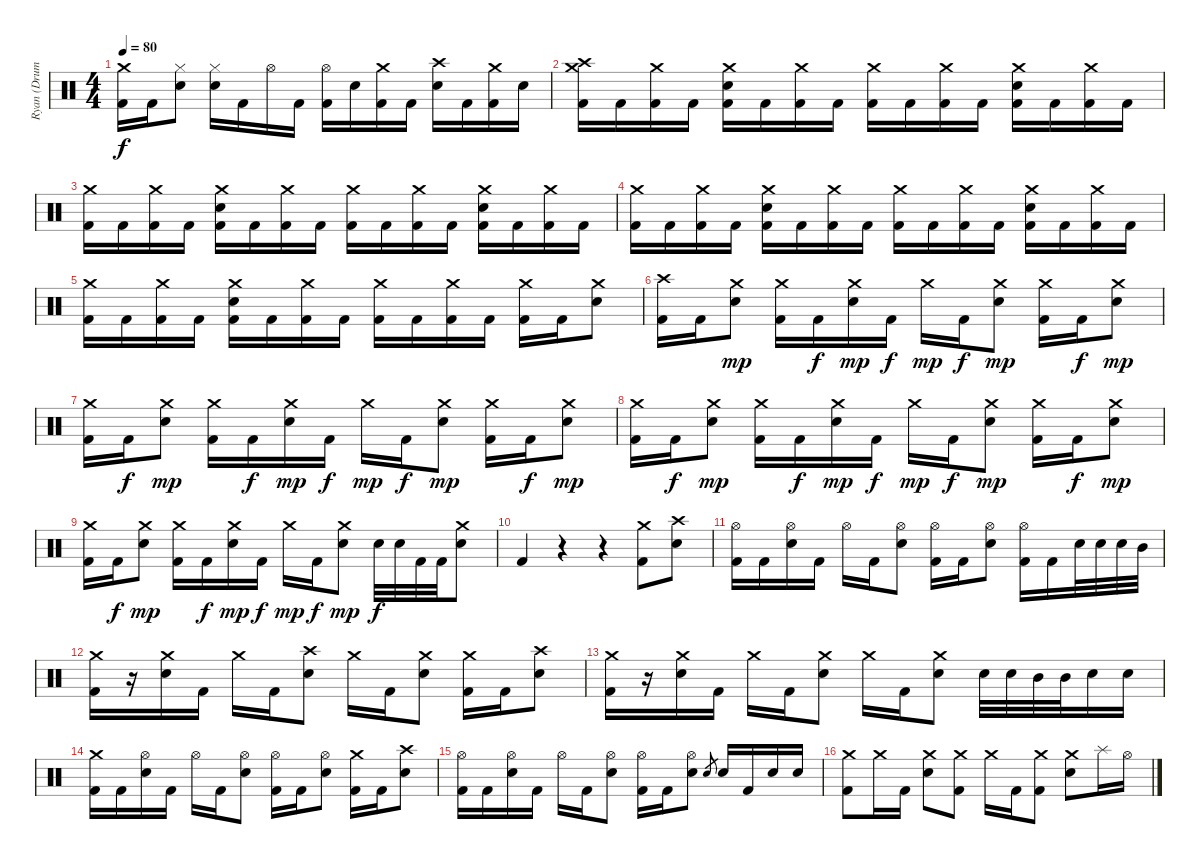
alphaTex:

\track ("Ryan (Drums)" "Ryan (Drum") {instrument percussion}
\staff {score}
\articulation defaults
\ts (4 4)
\tempo 80
\clef neutral
\ks c
("Crash medium (hit)" "Kick (hit) 2").16{dy f} "Kick (hit) 2".16 ("Hi-Hat (closed)" "Electric Snare (hit)").8 ("Hi-Hat (closed)" "Electric Snare (hit)").16 "Kick (hit) 2".16 "Hi-Hat (open)".16 "Kick (hit) 2".16 ("Hi-Hat (open)" "Kick (hit) 2").16 "Electric Snare (hit)".16 ("Crash medium (hit)" "Kick (hit) 2").16 "Kick (hit) 2".16 ("Crash high (hit)" "Electric Snare (hit)").16 "Kick (hit) 2".16 ("Crash medium (hit)" "Kick (hit) 2").16 "Electric Snare (hit)".16 |
("Crash medium (hit)" "Crash high (hit)" "Kick (hit) 2").16 "Kick (hit) 2".16 ("Crash medium (hit)" "Kick (hit) 2").16 "Kick (hit) 2".16 ("Crash medium (hit)" "Electric Snare (hit)" "Kick (hit) 2").16 "Kick (hit) 2".16 ("Crash medium (hit)" "Kick (hit) 2").16 "Kick (hit) 2".16 ("Crash medium (hit)" "Kick (hit) 2").16 "Kick (hit) 2".16 ("Crash medium (hit)" "Kick (hit) 2").16 "Kick (hit) 2".16 ("Crash medium (hit)" "Electric Snare (hit)" "Kick (hit) 2").16 "Kick (hit) 2".16 ("Crash medium (hit)" "Kick (hit) 2").16 "Kick (hit) 2".16 |
("Crash medium (hit)" "Kick (hit) 2").16 "Kick (hit) 2".16 ("Crash medium (hit)" "Kick (hit) 2").16 "Kick (hit) 2".16 ("Crash medium (hit)" "Electric Snare (hit)" "Kick (hit) 2").16 "Kick (hit) 2".16 ("Crash medium (hit)" "Kick (hit) 2").16 "Kick (hit) 2".16 ("Crash medium (hit)" "Kick (hit) 2").16 "Kick (hit) 2".16 ("Crash medium (hit)" "Kick (hit) 2").16 "Kick (hit) 2".16 ("Crash medium (hit)" "Electric Snare (hit)" "Kick (hit) 2").16 "Kick (hit) 2".16 ("Crash medium (hit)" "Kick (hit) 2").16 "Kick (hit) 2".16 |
("Crash medium (hit)" "Kick (hit) 2").16 "Kick (hit) 2".16 ("Crash medium (hit)" "Kick (hit) 2").16 "Kick (hit) 2".16 ("Crash medium (hit)" "Electric Snare (hit)" "Kick (hit) 2").16 "Kick (hit) 2".16 ("Crash medium (hit)" "Kick (hit) 2").16 "Kick (hit) 2".16 ("Crash medium (hit)" "Kick (hit) 2").16 "Kick (hit) 2".16 ("Crash medium (hit)" "Kick (hit) 2").16 "Kick (hit) 2".16 ("Crash medium (hit)" "Electric Snare (hit)" "Kick (hit) 2").16 "Kick (hit) 2".16 ("Crash medium (hit)" "Kick (hit) 2").16 "Kick (hit) 2".16 |
("Crash medium (hit)" "Kick (hit) 2").16 "Kick (hit) 2".16 ("Crash medium (hit)" "Kick (hit) 2").16 "Kick (hit) 2".16 ("Crash medium (hit)" "Electric Snare (hit)" "Kick (hit) 2").16 "Kick (hit) 2".16 ("Crash medium (hit)" "Kick (hit) 2").16 "Kick (hit) 2".16 ("Crash medium (hit)" "Kick (hit) 2").16 "Kick (hit) 2".16 ("Crash medium (hit)" "Kick (hit) 2").16 "Kick (hit) 2".16 ("Crash medium (hit)" "Kick (hit) 2").16 "Kick (hit) 2".16 ("Crash medium (hit)" "Electric Snare (hit)").8 |
("Crash high (hit)" "Kick (hit) 2").16 "Kick (hit) 2".16 ("Crash medium (hit)" "Electric Snare (hit)").8{dy mp} ("Crash medium (hit)" "Kick (hit) 2").16 "Kick (hit) 2".16{dy f} ("Crash medium (hit)" "Electric Snare (hit)").16{dy mp} "Kick (hit) 2".16{dy f} "Crash medium (hit)".16{dy mp} "Kick (hit) 2".16{dy f} ("Crash medium (hit)" "Electric Snare (hit)").8{dy mp} ("Crash medium (hit)" "Kick (hit) 2").16 "Kick (hit) 2".16{dy f} ("Crash medium (hit)" "Electric Snare (hit)").8{dy mp} |
("Crash medium (hit)" "Kick (hit) 2").16 "Kick (hit) 2".16{dy f} ("Crash medium (hit)" "Electric Snare (hit)").8{dy mp} ("Crash medium (hit)" "Kick (hit) 2").16 "Kick (hit) 2".16{dy f} ("Crash medium (hit)" "Electric Snare (hit)").16{dy mp} "Kick (hit) 2".16{dy f} "Crash medium (hit)".16{dy mp} "Kick (hit) 2".16{dy f} ("Crash medium (hit)" "Electric Snare (hit)").8{dy mp} ("Crash medium (hit)" "Kick (hit) 2").16 "Kick (hit) 2".16{dy f} ("Crash medium (hit)" "Electric Snare (hit)").8{dy mp} |
("Crash medium (hit)" "Kick (hit) 2").16 "Kick (hit) 2".16{dy f} ("Crash medium (hit)" "Electric Snare (hit)").8{dy mp} ("Crash medium (hit)" "Kick (hit) 2").16 "Kick (hit) 2".16{dy f} ("Crash medium (hit)" "Electric Snare (hit)").16{dy mp} "Kick (hit) 2".16{dy f} "Crash medium (hit)".16{dy mp} "Kick (hit) 2".16{dy f} ("Crash medium (hit)" "Electric Snare (hit)").8{dy mp} ("Crash medium (hit)" "Kick (hit) 2").16 "Kick (hit) 2".16{dy f} ("Crash medium (hit)" "Electric Snare (hit)").8{dy mp} |
("Crash medium (hit)" "Kick (hit) 2").16 "Kick (hit) 2".16{dy f} ("Crash medium (hit)" "Electric Snare (hit)").8{dy mp} ("Crash medium (hit)" "Kick (hit) 2").16 "Kick (hit) 2".16{dy f} ("Crash medium (hit)" "Electric Snare (hit)").16{dy mp} "Kick (hit) 2".16{dy f} "Crash medium (hit)".16{dy mp} "Kick (hit) 2".16{dy f} ("Crash medium (hit)" "Electric Snare (hit)").8{dy mp} "Electric Snare (hit)".32{dy f} "Electric Snare (hit)".32 "Kick (hit) 2".32 "Kick (hit) 2".32 ("Crash medium (hit)" "Electric Snare (hit)").8 |
"Kick (hit) 2".4 r.4 r.4 ("Crash medium (hit)" "Kick (hit) 2").8 ("Crash high (hit)" "Electric Snare (hit)").8 |
("Hi-Hat (open)" "Kick (hit) 2").16 "Kick (hit) 2".16 ("Hi-Hat (open)" "Electric Snare (hit)").16 "Kick (hit) 2".16 "Hi-Hat (open)".16 "Kick (hit) 2".16 ("Hi-Hat (open)" "Electric Snare (hit)").8 ("Hi-Hat (open)" "Kick (hit) 2").16 "Kick (hit) 2".16 ("Hi-Hat (open)" "Electric Snare (hit)").8 ("Hi-Hat (open)" "Kick (hit) 2").16 "Kick (hit) 2".16 "Electric Snare (hit)".32 "Electric Snare (hit)".32 "Electric Snare (hit)".32 "Mid Tom (hit)".32 |
("Crash medium (hit)" "Kick (hit) 2").16 r.16 ("Crash medium (hit)" "Electric Snare (hit)").16 "Kick (hit) 2".16 "Crash medium (hit)".16 "Kick (hit) 2".16 ("Crash high (hit)" "Electric Snare (hit)").8 "Crash medium (hit)".16 "Kick (hit) 2".16 ("Crash medium (hit)" "Electric Snare (hit)").8 ("Crash medium (hit)" "Kick (hit) 2").16 "Kick (hit) 2".16 ("Crash high (hit)" "Electric Snare (hit)").8 |
("Crash medium (hit)" "Kick (hit) 2").16 r.16 ("Crash medium (hit)" "Electric Snare (hit)").16 "Kick (hit) 2".16 "Crash medium (hit)".16 "Kick (hit) 2".16 ("Crash medium (hit)" "Electric Snare (hit)").8 "Crash medium (hit)".16 "Kick (hit) 2".16 ("Crash medium (hit)" "Electric Snare (hit)").8 "Electric Snare (hit)".32 "Electric Snare (hit)".32 "Mid Tom (hit)".32 "Mid Tom (hit)".32 "Electric Snare (hit)".16 "Electric Snare (hit)".16 |
("Crash medium (hit)" "Kick (hit) 2").16 "Kick (hit) 2".16 ("Hi-Hat (open)" "Electric Snare (hit)").16 "Kick (hit) 2".16 "Hi-Hat (open)".16 "Kick (hit) 2".16 ("Hi-Hat (open)" "Electric Snare (hit)").8 ("Hi-Hat (open)" "Kick (hit) 2").16 "Kick (hit) 2".16 ("Hi-Hat (open)" "Electric Snare (hit)").8 ("Crash medium (hit)" "Kick (hit) 2").16 "Kick (hit) 2".16 ("Crash high (hit)" "Electric Snare (hit)").8 |
("Hi-Hat (open)" "Kick (hit) 2").16 "Kick (hit) 2".16 ("Hi-Hat (open)" "Electric Snare (hit)").16 "Kick (hit) 2".16 "Hi-Hat (open)".16 "Kick (hit) 2".16 ("Hi-Hat (open)" "Electric Snare (hit)").8 ("Hi-Hat (open)" "Kick (hit) 2").16 "Kick (hit) 2".16 ("Hi-Hat (open)" "Electric Snare (hit)").8 "Electric Snare (hit)".8{gr} "Electric Snare (hit)".16 "Kick (hit) 2".16 "Electric Snare (hit)".16 "Electric Snare (hit)".16 |
("Crash medium (hit)" "Kick (hit) 2").8 "Crash medium (hit)".16 "Kick (hit) 2".16 ("Crash medium (hit)" "Electric Snare (hit)").8 ("Crash medium (hit)" "Kick (hit) 2").8 "Crash medium (hit)".16 "Kick (hit) 2".16 ("Crash medium (hit)" "Kick (hit) 2").8 ("Crash medium (hit)" "Electric Snare (hit)").8 "Splash (hit)".16 "Hi-Hat (open)".16
